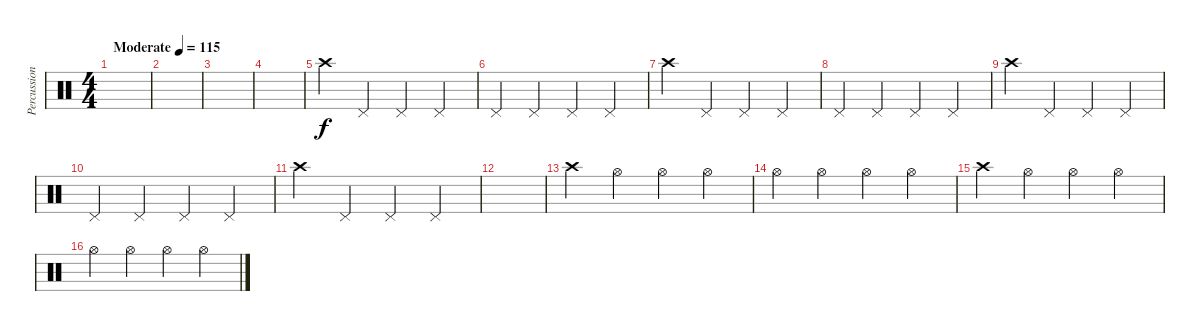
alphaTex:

\track ("Percussion" "Percussion") {instrument percussion}
\staff {score}
\articulation defaults
\ts (4 4)
\tempo (115 "Moderate")
\clef neutral
\ks c
|
|
|
|
"Crash high (hit)".4 "Pedal Hi-Hat (hit)".4 "Pedal Hi-Hat (hit)".4 "Pedal Hi-Hat (hit)".4 |
"Pedal Hi-Hat (hit)".4 "Pedal Hi-Hat (hit)".4 "Pedal Hi-Hat (hit)".4 "Pedal Hi-Hat (hit)".4 |
"Crash high (hit)".4 "Pedal Hi-Hat (hit)".4 "Pedal Hi-Hat (hit)".4 "Pedal Hi-Hat (hit)".4 |
"Pedal Hi-Hat (hit)".4 "Pedal Hi-Hat (hit)".4 "Pedal Hi-Hat (hit)".4 "Pedal Hi-Hat (hit)".4 |
"Crash high (hit)".4 "Pedal Hi-Hat (hit)".4 "Pedal Hi-Hat (hit)".4 "Pedal Hi-Hat (hit)".4 |
"Pedal Hi-Hat (hit)".4 "Pedal Hi-Hat (hit)".4 "Pedal Hi-Hat (hit)".4 "Pedal Hi-Hat (hit)".4 |
"Crash high (hit)".4 "Pedal Hi-Hat (hit)".4 "Pedal Hi-Hat (hit)".4 "Pedal Hi-Hat (hit)".4 |
|
"Crash high (hit)".4 "Hi-Hat (open)".4 "Hi-Hat (open)".4 "Hi-Hat (open)".4 |
"Hi-Hat (open)".4 "Hi-Hat (open)".4 "Hi-Hat (open)".4 "Hi-Hat (open)".4 |
"Crash high (hit)".4 "Hi-Hat (open)".4 "Hi-Hat (open)".4 "Hi-Hat (open)".4 |
"Hi-Hat (open)".4 "Hi-Hat (open)".4 "Hi-Hat (open)".4 "Hi-Hat (open)".4
